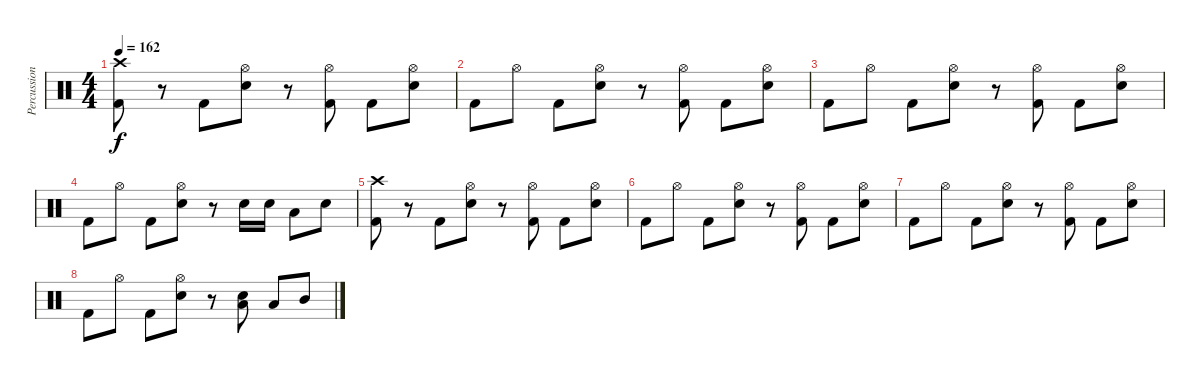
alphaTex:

\track ("Percussion" "Percussion") {instrument percussion}
\staff {score}
\articulation defaults
\ts (4 4)
\tempo 162
\clef neutral
\ks c
("Crash high (hit)" "Kick (hit) 2").8{dy f} r.8 "Kick (hit) 2".8 ("Hi-Hat (open)" "Snare (hit) 2").8 r.8 ("Hi-Hat (open)" "Kick (hit) 2").8 "Kick (hit) 2".8 ("Hi-Hat (open)" "Snare (hit) 2").8 |
"Kick (hit) 2".8 "Hi-Hat (open)".8 "Kick (hit) 2".8 ("Hi-Hat (open)" "Snare (hit) 2").8 r.8 ("Hi-Hat (open)" "Kick (hit) 2").8 "Kick (hit) 2".8 ("Hi-Hat (open)" "Snare (hit) 2").8 |
"Kick (hit) 2".8 "Hi-Hat (open)".8 "Kick (hit) 2".8 ("Hi-Hat (open)" "Snare (hit) 2").8 r.8 ("Hi-Hat (open)" "Kick (hit) 2").8 "Kick (hit) 2".8 ("Hi-Hat (open)" "Snare (hit) 2").8 |
"Kick (hit) 2".8 "Hi-Hat (open)".8 "Kick (hit) 2".8 ("Hi-Hat (open)" "Snare (hit) 2").8 r.8 "Snare (hit) 2".16 "Snare (hit) 2".16 "Low Floor Tom (hit)".8 "Snare (hit) 2".8 |
("Crash high (hit)" "Kick (hit) 2").8 r.8 "Kick (hit) 2".8 ("Hi-Hat (open)" "Snare (hit) 2").8 r.8 ("Hi-Hat (open)" "Kick (hit) 2").8 "Kick (hit) 2".8 ("Hi-Hat (open)" "Snare (hit) 2").8 |
"Kick (hit) 2".8 "Hi-Hat (open)".8 "Kick (hit) 2".8 ("Hi-Hat (open)" "Snare (hit) 2").8 r.8 ("Hi-Hat (open)" "Kick (hit) 2").8 "Kick (hit) 2".8 ("Hi-Hat (open)" "Snare (hit) 2").8 |
"Kick (hit) 2".8 "Hi-Hat (open)".8 "Kick (hit) 2".8 ("Hi-Hat (open)" "Snare (hit) 2").8 r.8 ("Hi-Hat (open)" "Kick (hit) 2").8 "Kick (hit) 2".8 ("Hi-Hat (open)" "Snare (hit) 2").8 |
"Kick (hit) 2".8 "Hi-Hat (open)".8 "Kick (hit) 2".8 ("Hi-Hat (open)" "Snare (hit) 2").8 r.8 ("Low Floor Tom (hit)" "Snare (hit) 2").8 "Low Tom (hit)".8 "Mid Tom (hit)".8
